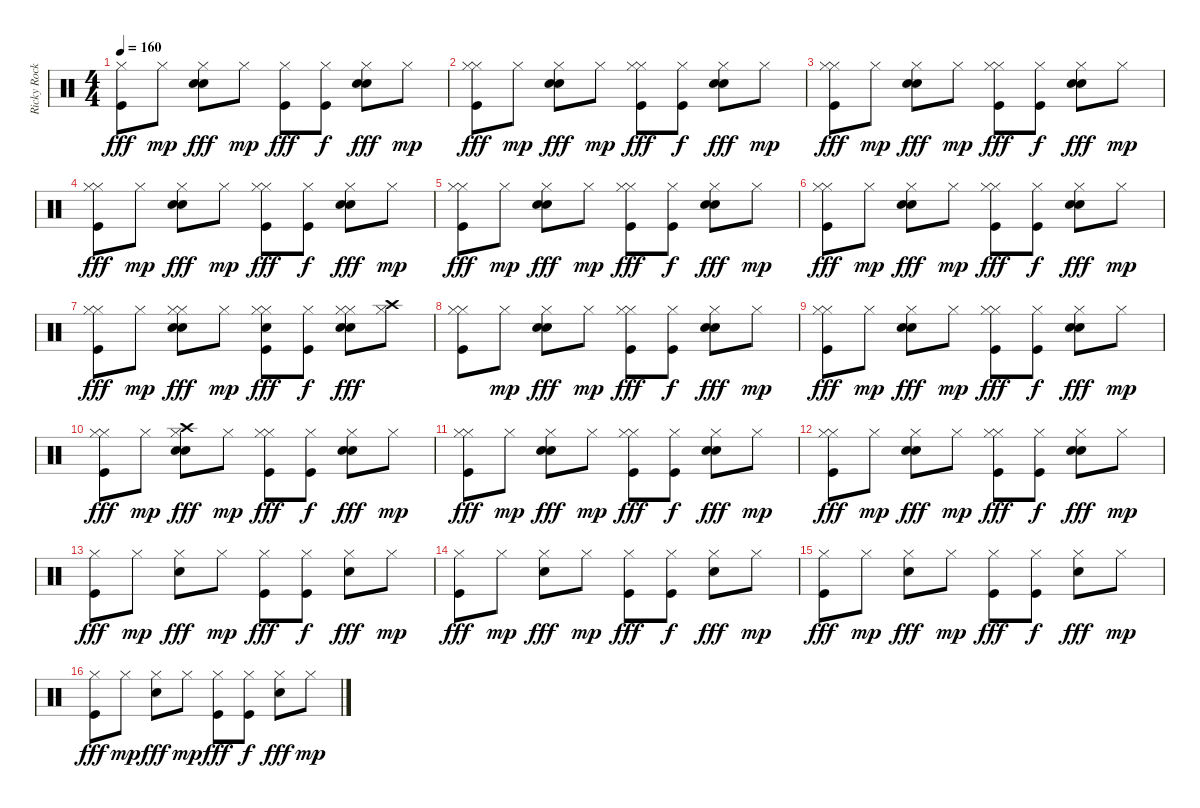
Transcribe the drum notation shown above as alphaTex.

\track ("Ricky Rockett" "Ricky Rock") {instrument percussion}
\staff {score}
\articulation defaults
\ts (4 4)
\tempo 160
\clef neutral
\ks c
("Hi-Hat (closed)" "Kick (hit)").8{dy fff} "Hi-Hat (closed)".8{dy mp} ("Snare (hit) 2" "Hi-Hat (closed)" "Electric Snare (hit)").8{dy fff} "Hi-Hat (closed)".8{dy mp} ("Hi-Hat (closed)" "Kick (hit)").8{dy fff} ("Hi-Hat (closed)" "Kick (hit)").8{dy f} ("Snare (hit) 2" "Hi-Hat (closed)" "Electric Snare (hit)").8{dy fff} "Hi-Hat (closed)".8{dy mp} |
("Hi-Hat (closed)" "Kick (hit)" "Hi-Hat (closed)").8{dy fff} "Hi-Hat (closed)".8{dy mp} ("Snare (hit) 2" "Hi-Hat (closed)" "Electric Snare (hit)").8{dy fff} "Hi-Hat (closed)".8{dy mp} ("Hi-Hat (closed)" "Kick (hit)" "Hi-Hat (closed)").8{dy fff} ("Hi-Hat (closed)" "Kick (hit)").8{dy f} ("Snare (hit) 2" "Hi-Hat (closed)" "Electric Snare (hit)").8{dy fff} "Hi-Hat (closed)".8{dy mp} |
("Hi-Hat (closed)" "Kick (hit)" "Hi-Hat (closed)").8{dy fff} "Hi-Hat (closed)".8{dy mp} ("Snare (hit) 2" "Hi-Hat (closed)" "Electric Snare (hit)").8{dy fff} "Hi-Hat (closed)".8{dy mp} ("Hi-Hat (closed)" "Kick (hit)" "Hi-Hat (closed)").8{dy fff} ("Hi-Hat (closed)" "Kick (hit)").8{dy f} ("Snare (hit) 2" "Hi-Hat (closed)" "Electric Snare (hit)").8{dy fff} "Hi-Hat (closed)".8{dy mp} |
("Hi-Hat (closed)" "Kick (hit)" "Hi-Hat (closed)").8{dy fff} "Hi-Hat (closed)".8{dy mp} ("Snare (hit) 2" "Hi-Hat (closed)" "Electric Snare (hit)").8{dy fff} "Hi-Hat (closed)".8{dy mp} ("Hi-Hat (closed)" "Kick (hit)" "Hi-Hat (closed)").8{dy fff} ("Hi-Hat (closed)" "Kick (hit)").8{dy f} ("Snare (hit) 2" "Hi-Hat (closed)" "Electric Snare (hit)").8{dy fff} "Hi-Hat (closed)".8{dy mp} |
("Hi-Hat (closed)" "Kick (hit)" "Hi-Hat (closed)").8{dy fff} "Hi-Hat (closed)".8{dy mp} ("Snare (hit) 2" "Hi-Hat (closed)" "Electric Snare (hit)").8{dy fff} "Hi-Hat (closed)".8{dy mp} ("Hi-Hat (closed)" "Kick (hit)" "Hi-Hat (closed)").8{dy fff} ("Hi-Hat (closed)" "Kick (hit)").8{dy f} ("Snare (hit) 2" "Hi-Hat (closed)" "Electric Snare (hit)").8{dy fff} "Hi-Hat (closed)".8{dy mp} |
("Hi-Hat (closed)" "Kick (hit)" "Hi-Hat (closed)").8{dy fff} "Hi-Hat (closed)".8{dy mp} ("Snare (hit) 2" "Hi-Hat (closed)" "Electric Snare (hit)").8{dy fff} "Hi-Hat (closed)".8{dy mp} ("Hi-Hat (closed)" "Kick (hit)" "Hi-Hat (closed)").8{dy fff} ("Hi-Hat (closed)" "Kick (hit)").8{dy f} ("Snare (hit) 2" "Hi-Hat (closed)" "Electric Snare (hit)").8{dy fff} "Hi-Hat (closed)".8{dy mp} |
("Hi-Hat (closed)" "Kick (hit)" "Hi-Hat (closed)").8{dy fff} "Hi-Hat (closed)".8{dy mp} ("Snare (hit) 2" "Hi-Hat (closed)" "Hi-Hat (closed)" "Electric Snare (hit)").8{dy fff} "Hi-Hat (closed)".8{dy mp} ("Hi-Hat (closed)" "Kick (hit)" "Hi-Hat (closed)" "Electric Snare (hit)").8{dy fff} ("Hi-Hat (closed)" "Kick (hit)").8{dy f} ("Snare (hit) 2" "Hi-Hat (closed)" "Hi-Hat (closed)" "Electric Snare (hit)").8{dy fff} ("Hi-Hat (closed)" "Crash high (hit)").8 |
("Hi-Hat (closed)" "Kick (hit)" "Hi-Hat (closed)").8 "Hi-Hat (closed)".8{dy mp} ("Snare (hit) 2" "Hi-Hat (closed)" "Electric Snare (hit)").8{dy fff} "Hi-Hat (closed)".8{dy mp} ("Hi-Hat (closed)" "Kick (hit)" "Hi-Hat (closed)").8{dy fff} ("Hi-Hat (closed)" "Kick (hit)").8{dy f} ("Snare (hit) 2" "Hi-Hat (closed)" "Electric Snare (hit)").8{dy fff} "Hi-Hat (closed)".8{dy mp} |
("Hi-Hat (closed)" "Kick (hit)" "Hi-Hat (closed)").8{dy fff} "Hi-Hat (closed)".8{dy mp} ("Snare (hit) 2" "Hi-Hat (closed)" "Electric Snare (hit)").8{dy fff} "Hi-Hat (closed)".8{dy mp} ("Hi-Hat (closed)" "Kick (hit)" "Hi-Hat (closed)").8{dy fff} ("Hi-Hat (closed)" "Kick (hit)").8{dy f} ("Snare (hit) 2" "Hi-Hat (closed)" "Electric Snare (hit)").8{dy fff} "Hi-Hat (closed)".8{dy mp} |
("Hi-Hat (closed)" "Kick (hit)" "Hi-Hat (closed)").8{dy fff} "Hi-Hat (closed)".8{dy mp} ("Snare (hit) 2" "Hi-Hat (closed)" "Electric Snare (hit)" "Crash high (hit)").8{dy fff} "Hi-Hat (closed)".8{dy mp} ("Hi-Hat (closed)" "Kick (hit)" "Hi-Hat (closed)").8{dy fff} ("Hi-Hat (closed)" "Kick (hit)").8{dy f} ("Snare (hit) 2" "Hi-Hat (closed)" "Electric Snare (hit)").8{dy fff} "Hi-Hat (closed)".8{dy mp} |
("Hi-Hat (closed)" "Kick (hit)" "Hi-Hat (closed)").8{dy fff} "Hi-Hat (closed)".8{dy mp} ("Snare (hit) 2" "Hi-Hat (closed)" "Electric Snare (hit)").8{dy fff} "Hi-Hat (closed)".8{dy mp} ("Hi-Hat (closed)" "Kick (hit)" "Hi-Hat (closed)").8{dy fff} ("Hi-Hat (closed)" "Kick (hit)").8{dy f} ("Snare (hit) 2" "Hi-Hat (closed)" "Electric Snare (hit)").8{dy fff} "Hi-Hat (closed)".8{dy mp} |
("Hi-Hat (closed)" "Kick (hit)" "Hi-Hat (closed)").8{dy fff} "Hi-Hat (closed)".8{dy mp} ("Snare (hit) 2" "Hi-Hat (closed)" "Electric Snare (hit)").8{dy fff} "Hi-Hat (closed)".8{dy mp} ("Hi-Hat (closed)" "Kick (hit)" "Hi-Hat (closed)").8{dy fff} ("Hi-Hat (closed)" "Kick (hit)").8{dy f} ("Snare (hit) 2" "Hi-Hat (closed)" "Electric Snare (hit)").8{dy fff} "Hi-Hat (closed)".8{dy mp} |
("Hi-Hat (closed)" "Kick (hit)").8{dy fff} "Hi-Hat (closed)".8{dy mp} ("Snare (hit) 2" "Hi-Hat (closed)").8{dy fff} "Hi-Hat (closed)".8{dy mp} ("Hi-Hat (closed)" "Kick (hit)").8{dy fff} ("Hi-Hat (closed)" "Kick (hit)").8{dy f} ("Snare (hit) 2" "Hi-Hat (closed)").8{dy fff} "Hi-Hat (closed)".8{dy mp} |
("Hi-Hat (closed)" "Kick (hit)").8{dy fff} "Hi-Hat (closed)".8{dy mp} ("Snare (hit) 2" "Hi-Hat (closed)").8{dy fff} "Hi-Hat (closed)".8{dy mp} ("Hi-Hat (closed)" "Kick (hit)").8{dy fff} ("Hi-Hat (closed)" "Kick (hit)").8{dy f} ("Snare (hit) 2" "Hi-Hat (closed)").8{dy fff} "Hi-Hat (closed)".8{dy mp} |
("Hi-Hat (closed)" "Kick (hit)").8{dy fff} "Hi-Hat (closed)".8{dy mp} ("Snare (hit) 2" "Hi-Hat (closed)").8{dy fff} "Hi-Hat (closed)".8{dy mp} ("Hi-Hat (closed)" "Kick (hit)").8{dy fff} ("Hi-Hat (closed)" "Kick (hit)").8{dy f} ("Snare (hit) 2" "Hi-Hat (closed)").8{dy fff} "Hi-Hat (closed)".8{dy mp} |
("Hi-Hat (closed)" "Kick (hit)").8{dy fff} "Hi-Hat (closed)".8{dy mp} ("Snare (hit) 2" "Hi-Hat (closed)").8{dy fff} "Hi-Hat (closed)".8{dy mp} ("Hi-Hat (closed)" "Kick (hit)").8{dy fff} ("Hi-Hat (closed)" "Kick (hit)").8{dy f} ("Snare (hit) 2" "Hi-Hat (closed)").8{dy fff} "Hi-Hat (closed)".8{dy mp}
